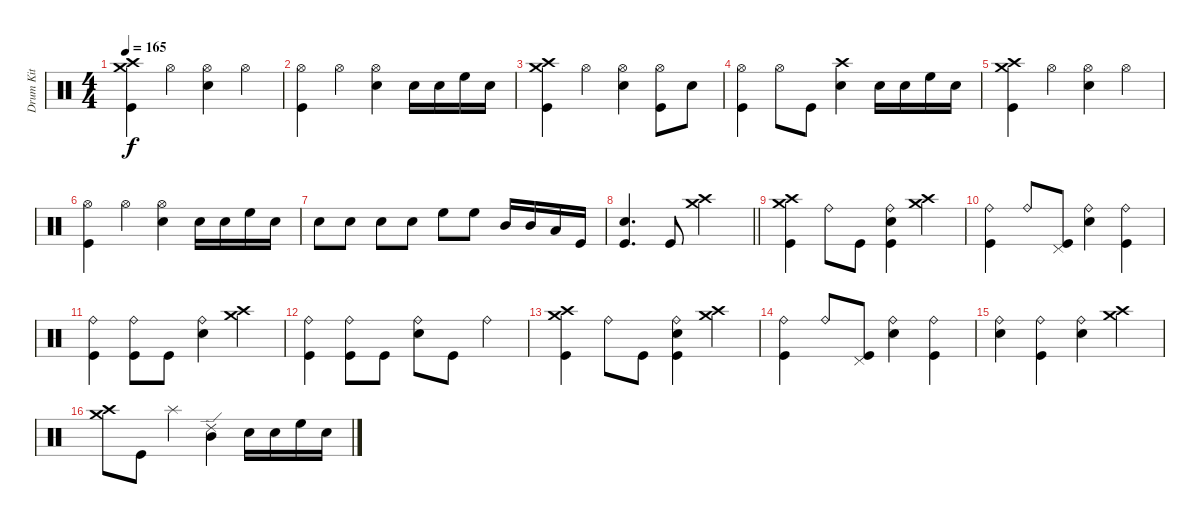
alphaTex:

\track ("Drum Kit" "Drum Kit") {instrument percussion}
\staff {score}
\articulation defaults
\ts (4 4)
\tempo 165
\clef neutral
\ks c
("Crash high (hit)" "Crash medium (hit)" "Kick (hit)").4{dy f} "Hi-Hat (open)".4 ("Hi-Hat (open)" "Snare (hit) 2").4 "Hi-Hat (open)".4 |
("Hi-Hat (open)" "Kick (hit)").4 "Hi-Hat (open)".4 ("Hi-Hat (open)" "Snare (hit) 2").4 "Snare (hit) 2".16 "Snare (hit) 2".16 "High Floor Tom (hit)".16 "Snare (hit) 2".16 |
("Crash high (hit)" "Crash medium (hit)" "Kick (hit)").4 "Hi-Hat (open)".4 ("Hi-Hat (open)" "Snare (hit) 2").4 ("Hi-Hat (open)" "Kick (hit)").8 "Snare (hit) 2".8 |
("Hi-Hat (open)" "Kick (hit)").4 "Hi-Hat (open)".8 "Kick (hit)".8 ("Snare (hit) 2" "Crash high (hit)").4 "Snare (hit) 2".16 "Snare (hit) 2".16 "High Floor Tom (hit)".16 "Snare (hit) 2".16 |
("Crash high (hit)" "Crash medium (hit)" "Kick (hit)").4 "Hi-Hat (open)".4 ("Hi-Hat (open)" "Snare (hit) 2").4 "Hi-Hat (open)".4 |
("Hi-Hat (open)" "Kick (hit)").4 "Hi-Hat (open)".4 ("Hi-Hat (open)" "Snare (hit) 2").4 "Snare (hit) 2".16 "Snare (hit) 2".16 "High Floor Tom (hit)".16 "Snare (hit) 2".16 |
"Snare (hit) 2".8 "Snare (hit) 2".8 "Snare (hit) 2".8 "Snare (hit) 2".8 "High Floor Tom (hit)".8 "High Floor Tom (hit)".8 "Mid Tom (hit)".16 "Mid Tom (hit)".16 "Low Tom (hit)".16 "Kick (hit)".16 |
\barLineRight lightlight
("Snare (hit) 2" "Kick (hit)").4{d} "Kick (hit)".8 ("Crash medium (hit)" "Crash high (hit)").2 |
("Crash high (hit)" "Crash medium (hit)" "Kick (hit)").4 "Ride (bell)".8 "Kick (hit)".8 ("Ride (bell)" "Snare (hit) 2" "Kick (hit)").4 ("Crash high (hit)" "Crash medium (hit)").4 |
("Ride (bell)" "Kick (hit)").4 "Ride (bell)".8 ("Pedal Hi-Hat (hit)" "Kick (hit)").8 ("Ride (bell)" "Snare (hit) 2").4 ("Ride (bell)" "Kick (hit)").4 |
("Ride (bell)" "Kick (hit)").4 ("Ride (bell)" "Kick (hit)").8 "Kick (hit)".8 ("Ride (bell)" "Snare (hit) 2").4 ("Crash medium (hit)" "Crash high (hit)").4 |
("Ride (bell)" "Kick (hit)").4 ("Ride (bell)" "Kick (hit)").8 "Kick (hit)".8 ("Ride (bell)" "Snare (hit) 2").8 "Kick (hit)".8 "Ride (bell)".4 |
("Crash high (hit)" "Crash medium (hit)" "Kick (hit)").4 "Ride (bell)".8 "Kick (hit)".8 ("Ride (bell)" "Snare (hit) 2" "Kick (hit)").4 ("Crash high (hit)" "Crash medium (hit)").4 |
("Ride (bell)" "Kick (hit)").4 "Ride (bell)".8 ("Pedal Hi-Hat (hit)" "Kick (hit)").8 ("Ride (bell)" "Snare (hit) 2").4 ("Ride (bell)" "Kick (hit)").4 |
("Ride (bell)" "Snare (hit) 2").4 ("Ride (bell)" "Kick (hit)").4 ("Ride (bell)" "Snare (hit) 2").4 ("Crash high (hit)" "Crash medium (hit)").4 |
("Crash high (hit)" "Crash medium (hit)").8 "Kick (hit)".8 "Splash (hit)".4 ("Ride (edge) 2" "Mid Tom (hit)").4 "Snare (hit) 2".16 "Snare (hit) 2".16 "High Floor Tom (hit)".16 "Snare (hit) 2".16
